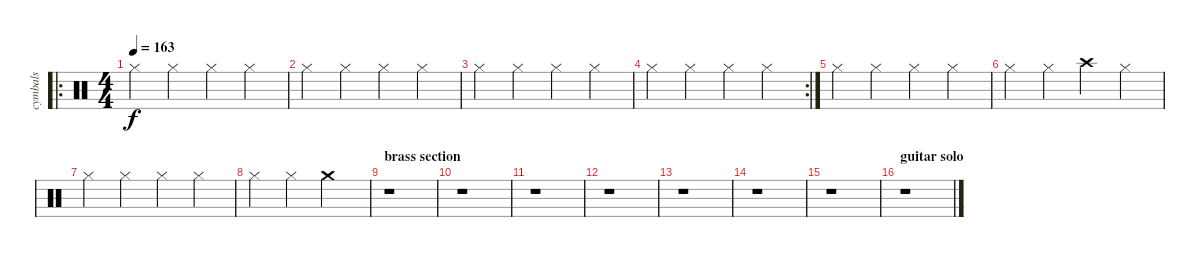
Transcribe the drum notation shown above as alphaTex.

\track ("cymbals" "cymbals") {instrument percussion}
\staff {score}
\articulation defaults
\ro
\ts (4 4)
\tempo 163
\clef neutral
\ks c "Hi-Hat (closed)".4{dy f} "Hi-Hat (closed)".4 "Hi-Hat (closed)".4 "Hi-Hat (closed)".4
|
"Hi-Hat (closed)".4 "Hi-Hat (closed)".4 "Hi-Hat (closed)".4 "Hi-Hat (closed)".4 |
"Hi-Hat (closed)".4 "Hi-Hat (closed)".4 "Hi-Hat (closed)".4 "Hi-Hat (closed)".4 |
\rc 2 "Hi-Hat (closed)".4 "Hi-Hat (closed)".4 "Hi-Hat (closed)".4 "Hi-Hat (closed)".4
|
"Hi-Hat (closed)".4 "Hi-Hat (closed)".4 "Hi-Hat (closed)".4 "Hi-Hat (closed)".4 |
"Hi-Hat (closed)".4 "Hi-Hat (closed)".4 "Crash high (hit)".4 "Hi-Hat (closed)".4 |
"Hi-Hat (closed)".4 "Hi-Hat (closed)".4 "Hi-Hat (closed)".4 "Hi-Hat (closed)".4 |
"Hi-Hat (closed)".4 "Hi-Hat (closed)".4 "Crash medium (hit)".2 |
\section ("" "brass section")
r.1 |
r.1 |
r.1 |
r.1 |
r.1 |
r.1 |
r.1 |
\section ("" "guitar solo")
r.1
